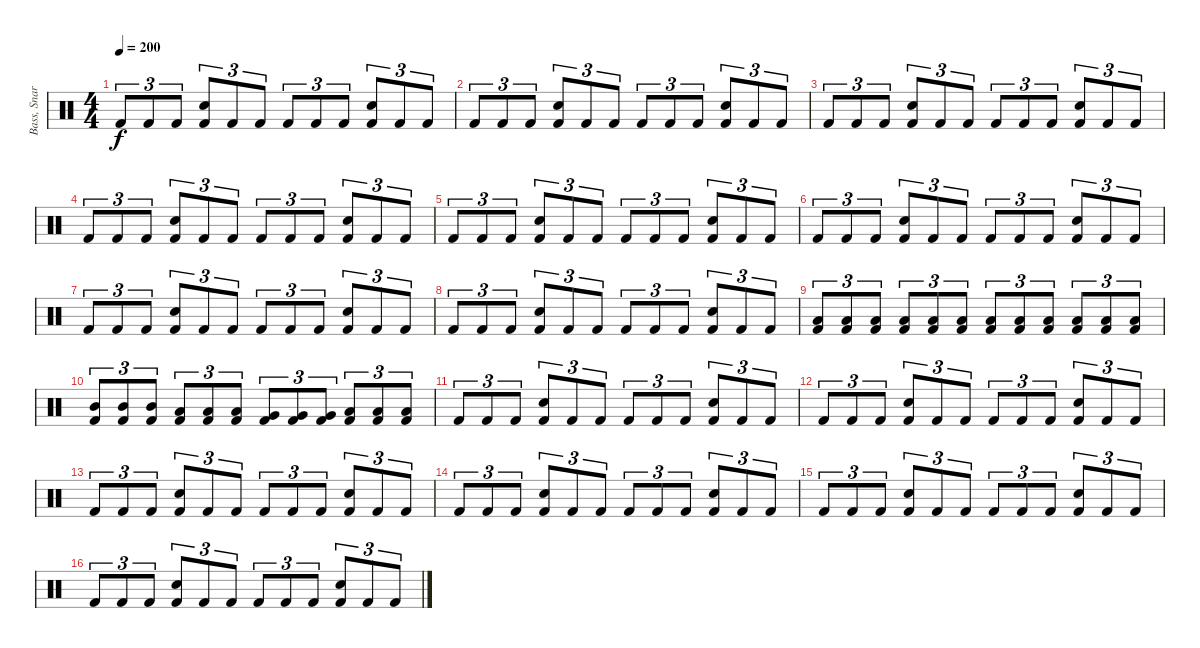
\track ("Bass, Snare & Toms" "Bass, Snar") {instrument percussion}
\staff {score}
\articulation defaults
\ts (4 4)
\tempo 200
\clef neutral
\ks c "Kick (hit) 2".8{tu (3 2) dy f} "Kick (hit) 2".8{tu (3 2)} "Kick (hit) 2".8{tu (3 2)}
("Electric Snare (hit)" "Kick (hit) 2").8{tu (3 2)} "Kick (hit) 2".8{tu (3 2)} "Kick (hit) 2".8{tu (3 2)} "Kick (hit) 2".8{tu (3 2)} "Kick (hit) 2".8{tu (3 2)} "Kick (hit) 2".8{tu (3 2)} ("Electric Snare (hit)" "Kick (hit) 2").8{tu (3 2)} "Kick (hit) 2".8{tu (3 2)} "Kick (hit) 2".8{tu (3 2)} |
"Kick (hit) 2".8{tu (3 2)} "Kick (hit) 2".8{tu (3 2)} "Kick (hit) 2".8{tu (3 2)} ("Electric Snare (hit)" "Kick (hit) 2").8{tu (3 2)} "Kick (hit) 2".8{tu (3 2)} "Kick (hit) 2".8{tu (3 2)} "Kick (hit) 2".8{tu (3 2)} "Kick (hit) 2".8{tu (3 2)} "Kick (hit) 2".8{tu (3 2)} ("Electric Snare (hit)" "Kick (hit) 2").8{tu (3 2)} "Kick (hit) 2".8{tu (3 2)} "Kick (hit) 2".8{tu (3 2)} |
"Kick (hit) 2".8{tu (3 2)} "Kick (hit) 2".8{tu (3 2)} "Kick (hit) 2".8{tu (3 2)} ("Electric Snare (hit)" "Kick (hit) 2").8{tu (3 2)} "Kick (hit) 2".8{tu (3 2)} "Kick (hit) 2".8{tu (3 2)} "Kick (hit) 2".8{tu (3 2)} "Kick (hit) 2".8{tu (3 2)} "Kick (hit) 2".8{tu (3 2)} ("Electric Snare (hit)" "Kick (hit) 2").8{tu (3 2)} "Kick (hit) 2".8{tu (3 2)} "Kick (hit) 2".8{tu (3 2)} |
"Kick (hit) 2".8{tu (3 2)} "Kick (hit) 2".8{tu (3 2)} "Kick (hit) 2".8{tu (3 2)} ("Electric Snare (hit)" "Kick (hit) 2").8{tu (3 2)} "Kick (hit) 2".8{tu (3 2)} "Kick (hit) 2".8{tu (3 2)} "Kick (hit) 2".8{tu (3 2)} "Kick (hit) 2".8{tu (3 2)} "Kick (hit) 2".8{tu (3 2)} ("Electric Snare (hit)" "Kick (hit) 2").8{tu (3 2)} "Kick (hit) 2".8{tu (3 2)} "Kick (hit) 2".8{tu (3 2)} |
"Kick (hit) 2".8{tu (3 2)} "Kick (hit) 2".8{tu (3 2)} "Kick (hit) 2".8{tu (3 2)} ("Electric Snare (hit)" "Kick (hit) 2").8{tu (3 2)} "Kick (hit) 2".8{tu (3 2)} "Kick (hit) 2".8{tu (3 2)} "Kick (hit) 2".8{tu (3 2)} "Kick (hit) 2".8{tu (3 2)} "Kick (hit) 2".8{tu (3 2)} ("Electric Snare (hit)" "Kick (hit) 2").8{tu (3 2)} "Kick (hit) 2".8{tu (3 2)} "Kick (hit) 2".8{tu (3 2)} |
"Kick (hit) 2".8{tu (3 2)} "Kick (hit) 2".8{tu (3 2)} "Kick (hit) 2".8{tu (3 2)} ("Electric Snare (hit)" "Kick (hit) 2").8{tu (3 2)} "Kick (hit) 2".8{tu (3 2)} "Kick (hit) 2".8{tu (3 2)} "Kick (hit) 2".8{tu (3 2)} "Kick (hit) 2".8{tu (3 2)} "Kick (hit) 2".8{tu (3 2)} ("Electric Snare (hit)" "Kick (hit) 2").8{tu (3 2)} "Kick (hit) 2".8{tu (3 2)} "Kick (hit) 2".8{tu (3 2)} |
"Kick (hit) 2".8{tu (3 2)} "Kick (hit) 2".8{tu (3 2)} "Kick (hit) 2".8{tu (3 2)} ("Electric Snare (hit)" "Kick (hit) 2").8{tu (3 2)} "Kick (hit) 2".8{tu (3 2)} "Kick (hit) 2".8{tu (3 2)} "Kick (hit) 2".8{tu (3 2)} "Kick (hit) 2".8{tu (3 2)} "Kick (hit) 2".8{tu (3 2)} ("Electric Snare (hit)" "Kick (hit) 2").8{tu (3 2)} "Kick (hit) 2".8{tu (3 2)} "Kick (hit) 2".8{tu (3 2)} |
"Kick (hit) 2".8{tu (3 2)} "Kick (hit) 2".8{tu (3 2)} "Kick (hit) 2".8{tu (3 2)} ("Electric Snare (hit)" "Kick (hit) 2").8{tu (3 2)} "Kick (hit) 2".8{tu (3 2)} "Kick (hit) 2".8{tu (3 2)} "Kick (hit) 2".8{tu (3 2)} "Kick (hit) 2".8{tu (3 2)} "Kick (hit) 2".8{tu (3 2)} ("Electric Snare (hit)" "Kick (hit) 2").8{tu (3 2)} "Kick (hit) 2".8{tu (3 2)} "Kick (hit) 2".8{tu (3 2)} |
("Low Floor Tom (hit)" "Kick (hit) 2").8{tu (3 2)} ("Low Floor Tom (hit)" "Kick (hit) 2").8{tu (3 2)} ("Low Floor Tom (hit)" "Kick (hit) 2").8{tu (3 2)} ("Low Floor Tom (hit)" "Kick (hit) 2").8{tu (3 2)} ("Low Floor Tom (hit)" "Kick (hit) 2").8{tu (3 2)} ("Low Floor Tom (hit)" "Kick (hit) 2").8{tu (3 2)} ("Low Floor Tom (hit)" "Kick (hit) 2").8{tu (3 2)} ("Low Floor Tom (hit)" "Kick (hit) 2").8{tu (3 2)} ("Low Floor Tom (hit)" "Kick (hit) 2").8{tu (3 2)} ("Low Floor Tom (hit)" "Kick (hit) 2").8{tu (3 2)} ("Low Floor Tom (hit)" "Kick (hit) 2").8{tu (3 2)} ("Low Floor Tom (hit)" "Kick (hit) 2").8{tu (3 2)} |
("Mid Tom (hit)" "Kick (hit) 2").8{tu (3 2)} ("Mid Tom (hit)" "Kick (hit) 2").8{tu (3 2)} ("Mid Tom (hit)" "Kick (hit) 2").8{tu (3 2)} ("Low Tom (hit)" "Kick (hit) 2").8{tu (3 2)} ("Low Tom (hit)" "Kick (hit) 2").8{tu (3 2)} ("Low Tom (hit)" "Kick (hit) 2").8{tu (3 2)} ("Very Low Tom (hit)" "Kick (hit) 2").8{tu (3 2)} ("Very Low Tom (hit)" "Kick (hit) 2").8{tu (3 2)} ("Very Low Tom (hit)" "Kick (hit) 2").8{tu (3 2)} ("Low Floor Tom (hit)" "Kick (hit) 2").8{tu (3 2)} ("Low Floor Tom (hit)" "Kick (hit) 2").8{tu (3 2)} ("Low Floor Tom (hit)" "Kick (hit) 2").8{tu (3 2)} |
"Kick (hit) 2".8{tu (3 2)} "Kick (hit) 2".8{tu (3 2)} "Kick (hit) 2".8{tu (3 2)} ("Electric Snare (hit)" "Kick (hit) 2").8{tu (3 2)} "Kick (hit) 2".8{tu (3 2)} "Kick (hit) 2".8{tu (3 2)} "Kick (hit) 2".8{tu (3 2)} "Kick (hit) 2".8{tu (3 2)} "Kick (hit) 2".8{tu (3 2)} ("Electric Snare (hit)" "Kick (hit) 2").8{tu (3 2)} "Kick (hit) 2".8{tu (3 2)} "Kick (hit) 2".8{tu (3 2)} |
"Kick (hit) 2".8{tu (3 2)} "Kick (hit) 2".8{tu (3 2)} "Kick (hit) 2".8{tu (3 2)} ("Electric Snare (hit)" "Kick (hit) 2").8{tu (3 2)} "Kick (hit) 2".8{tu (3 2)} "Kick (hit) 2".8{tu (3 2)} "Kick (hit) 2".8{tu (3 2)} "Kick (hit) 2".8{tu (3 2)} "Kick (hit) 2".8{tu (3 2)} ("Electric Snare (hit)" "Kick (hit) 2").8{tu (3 2)} "Kick (hit) 2".8{tu (3 2)} "Kick (hit) 2".8{tu (3 2)} |
"Kick (hit) 2".8{tu (3 2)} "Kick (hit) 2".8{tu (3 2)} "Kick (hit) 2".8{tu (3 2)} ("Electric Snare (hit)" "Kick (hit) 2").8{tu (3 2)} "Kick (hit) 2".8{tu (3 2)} "Kick (hit) 2".8{tu (3 2)} "Kick (hit) 2".8{tu (3 2)} "Kick (hit) 2".8{tu (3 2)} "Kick (hit) 2".8{tu (3 2)} ("Electric Snare (hit)" "Kick (hit) 2").8{tu (3 2)} "Kick (hit) 2".8{tu (3 2)} "Kick (hit) 2".8{tu (3 2)} |
"Kick (hit) 2".8{tu (3 2)} "Kick (hit) 2".8{tu (3 2)} "Kick (hit) 2".8{tu (3 2)} ("Electric Snare (hit)" "Kick (hit) 2").8{tu (3 2)} "Kick (hit) 2".8{tu (3 2)} "Kick (hit) 2".8{tu (3 2)} "Kick (hit) 2".8{tu (3 2)} "Kick (hit) 2".8{tu (3 2)} "Kick (hit) 2".8{tu (3 2)} ("Electric Snare (hit)" "Kick (hit) 2").8{tu (3 2)} "Kick (hit) 2".8{tu (3 2)} "Kick (hit) 2".8{tu (3 2)} |
"Kick (hit) 2".8{tu (3 2)} "Kick (hit) 2".8{tu (3 2)} "Kick (hit) 2".8{tu (3 2)} ("Electric Snare (hit)" "Kick (hit) 2").8{tu (3 2)} "Kick (hit) 2".8{tu (3 2)} "Kick (hit) 2".8{tu (3 2)} "Kick (hit) 2".8{tu (3 2)} "Kick (hit) 2".8{tu (3 2)} "Kick (hit) 2".8{tu (3 2)} ("Electric Snare (hit)" "Kick (hit) 2").8{tu (3 2)} "Kick (hit) 2".8{tu (3 2)} "Kick (hit) 2".8{tu (3 2)} |
"Kick (hit) 2".8{tu (3 2)} "Kick (hit) 2".8{tu (3 2)} "Kick (hit) 2".8{tu (3 2)} ("Electric Snare (hit)" "Kick (hit) 2").8{tu (3 2)} "Kick (hit) 2".8{tu (3 2)} "Kick (hit) 2".8{tu (3 2)} "Kick (hit) 2".8{tu (3 2)} "Kick (hit) 2".8{tu (3 2)} "Kick (hit) 2".8{tu (3 2)} ("Electric Snare (hit)" "Kick (hit) 2").8{tu (3 2)} "Kick (hit) 2".8{tu (3 2)} "Kick (hit) 2".8{tu (3 2)}
